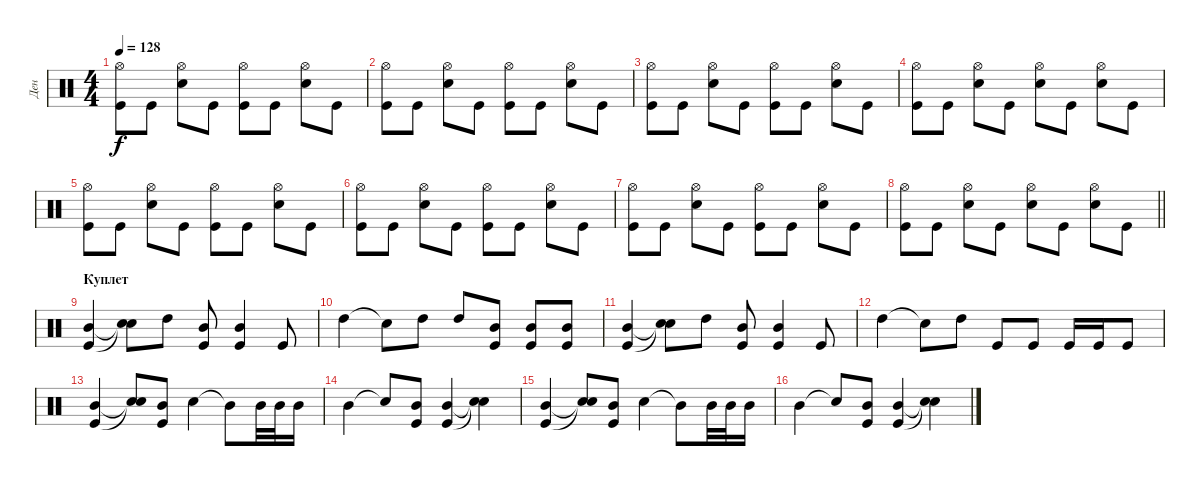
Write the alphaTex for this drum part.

\track ("Ден" "Ден") {instrument percussion}
\staff
\articulation defaults
\ts (4 4)
\tempo 128
\clef neutral
\ks c
("Kick (hit)" "Hi-Hat (open)").8{dy f} "Kick (hit)".8 ("Snare (hit) 2" "Hi-Hat (open)").8 "Kick (hit)".8 ("Kick (hit)" "Hi-Hat (open)").8 "Kick (hit)".8 ("Snare (hit) 2" "Hi-Hat (open)").8 "Kick (hit)".8 |
("Kick (hit)" "Hi-Hat (open)").8 "Kick (hit)".8 ("Snare (hit) 2" "Hi-Hat (open)").8 "Kick (hit)".8 ("Kick (hit)" "Hi-Hat (open)").8 "Kick (hit)".8 ("Snare (hit) 2" "Hi-Hat (open)").8 "Kick (hit)".8 |
("Kick (hit)" "Hi-Hat (open)").8 "Kick (hit)".8 ("Snare (hit) 2" "Hi-Hat (open)").8 "Kick (hit)".8 ("Kick (hit)" "Hi-Hat (open)").8 "Kick (hit)".8 ("Snare (hit) 2" "Hi-Hat (open)").8 "Kick (hit)".8 |
("Kick (hit)" "Hi-Hat (open)").8 "Kick (hit)".8 ("Snare (hit) 2" "Hi-Hat (open)").8 "Kick (hit)".8 ("Snare (hit) 2" "Hi-Hat (open)").8 "Kick (hit)".8 ("Snare (hit) 2" "Hi-Hat (open)").8 "Kick (hit)".8 |
("Kick (hit)" "Hi-Hat (open)").8 "Kick (hit)".8 ("Snare (hit) 2" "Hi-Hat (open)").8 "Kick (hit)".8 ("Kick (hit)" "Hi-Hat (open)").8 "Kick (hit)".8 ("Snare (hit) 2" "Hi-Hat (open)").8 "Kick (hit)".8 |
("Kick (hit)" "Hi-Hat (open)").8 "Kick (hit)".8 ("Snare (hit) 2" "Hi-Hat (open)").8 "Kick (hit)".8 ("Kick (hit)" "Hi-Hat (open)").8 "Kick (hit)".8 ("Snare (hit) 2" "Hi-Hat (open)").8 "Kick (hit)".8 |
("Kick (hit)" "Hi-Hat (open)").8 "Kick (hit)".8 ("Snare (hit) 2" "Hi-Hat (open)").8 "Kick (hit)".8 ("Kick (hit)" "Hi-Hat (open)").8 "Kick (hit)".8 ("Snare (hit) 2" "Hi-Hat (open)").8 "Kick (hit)".8 |
\barLineRight lightlight
("Kick (hit)" "Hi-Hat (open)").8 "Kick (hit)".8 ("Snare (hit) 2" "Hi-Hat (open)").8 "Kick (hit)".8 ("Snare (hit) 2" "Hi-Hat (open)").8 "Kick (hit)".8 ("Snare (hit) 2" "Hi-Hat (open)").8 "Kick (hit)".8 |
\section ("" "Куплет")
("Kick (hit)" "Mid Tom (hit)").4 ("Snare (hit)"{t} "Snare (hit)"{t}).8 "High Tom (hit)".8 ("Kick (hit)" "Mid Tom (hit)").8 ("Kick (hit)" "Mid Tom (hit)").4 "Kick (hit)".8 |
"High Tom (hit)".4 "Snare (hit)"{t}.8 "High Tom (hit)".8 "High Tom (hit)".8 ("Mid Tom (hit)" "Kick (hit)").8 ("Mid Tom (hit)" "Kick (hit)").8 ("Mid Tom (hit)" "Kick (hit)").8 |
("Kick (hit)" "Mid Tom (hit)").4 ("Snare (hit)"{t} "Snare (hit)"{t}).8 "High Tom (hit)".8 ("Kick (hit)" "Mid Tom (hit)").8 ("Kick (hit)" "Mid Tom (hit)").4 "Kick (hit)".8 |
"High Tom (hit)".4 "Snare (hit)"{t}.8 "High Tom (hit)".8 "Kick (hit)".8 "Kick (hit)".8 "Kick (hit)".16 "Kick (hit)".16 "Kick (hit)".8 |
("Kick (hit)" "Mid Tom (hit)").4 ("Snare (hit)"{t} "Snare (hit)"{t}).8 ("Mid Tom (hit)" "Kick (hit)").8 "Snare (hit) 2".4 "Mid Tom (hit)"{t}.8 "Mid Tom (hit)".32 "Mid Tom (hit)".32 "Mid Tom (hit)".16 |
"Mid Tom (hit)".4 "Snare (hit)"{t}.8 ("Mid Tom (hit)" "Kick (hit)").8 ("Kick (hit)" "Mid Tom (hit)").4 ("Snare (hit)"{t} "Snare (hit)"{t}).4 |
("Kick (hit)" "Mid Tom (hit)").4 ("Snare (hit)"{t} "Snare (hit)"{t}).8 ("Mid Tom (hit)" "Kick (hit)").8 "Snare (hit) 2".4 "Mid Tom (hit)"{t}.8 "Mid Tom (hit)".32 "Mid Tom (hit)".32 "Mid Tom (hit)".16 |
"Mid Tom (hit)".4 "Snare (hit)"{t}.8 ("Mid Tom (hit)" "Kick (hit)").8 ("Kick (hit)" "Mid Tom (hit)").4 ("Snare (hit)"{t} "Snare (hit)"{t}).4
